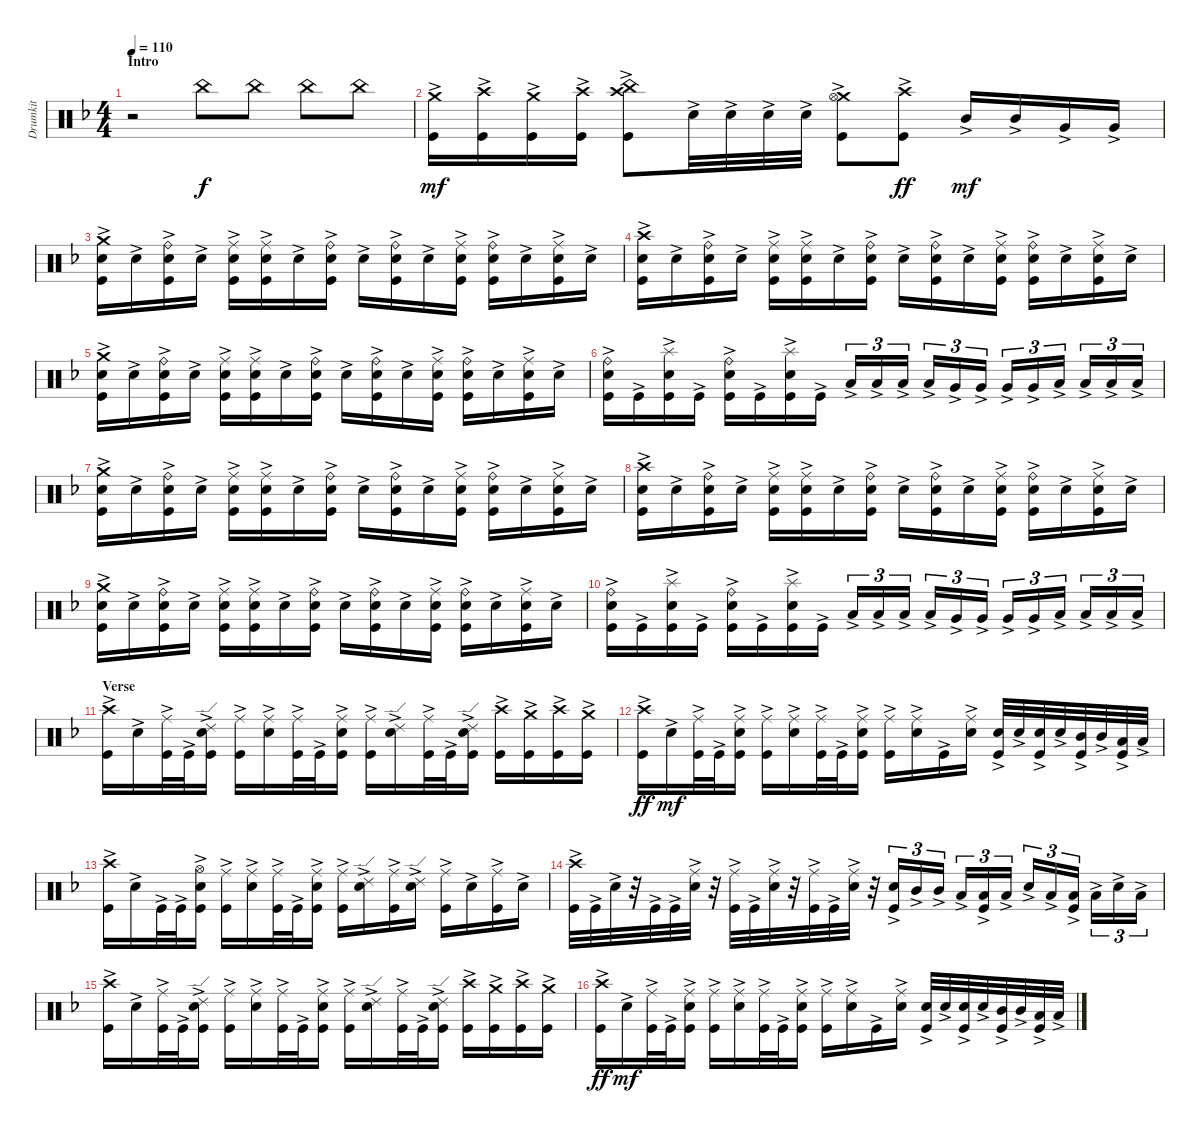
\track ("Drumkit" "Drumkit") {instrument percussion}
\staff {score}
\articulation defaults
\ts (4 4)
\section ("" "Intro")
\tempo 110
\clef neutral
\ks dminor
r.2{dy f} "China (hit)".8 "China (hit)".8 "China (hit)".8 "China (hit)".8 |
("Crash medium (hit)"{ac} "Kick (hit)"{ac}).16{dy mf} ("Crash high (hit)"{ac} "Kick (hit)"{ac}).16 ("Crash medium (hit)"{ac} "Kick (hit)"{ac}).16 ("Crash high (hit)"{ac} "Kick (hit)"{ac}).16 ("China (hit)"{ac} "Crash high (hit)"{ac} "Kick (hit)"{ac}).8 "Snare (hit) 2"{ac}.32 "Snare (hit) 2"{ac}.32 "Snare (hit) 2"{ac}.32 "Snare (hit) 2"{ac}.32 ("Crash medium (hit)"{ac} "Hi-Hat (open)"{ac} "Kick (hit)"{ac}).8 ("Crash high (hit)"{ac} "Kick (hit)"{ac}).8{dy ff} "Mid Tom (hit)"{ac}.16{dy mf} "Mid Tom (hit)"{ac}.16 "Very Low Tom (hit)"{ac}.16 "Very Low Tom (hit)"{ac}.16 |
("Crash medium (hit)"{ac} "Snare (hit) 2"{ac} "Kick (hit)"{ac}).16 "Snare (hit) 2"{ac}.16 ("Ride (bell)"{ac} "Snare (hit) 2"{ac} "Kick (hit)"{ac}).16 "Snare (hit) 2"{ac}.16 ("Ride (middle)"{ac} "Snare (hit) 2"{ac} "Kick (hit)"{ac}).16 ("Ride (middle)"{ac} "Snare (hit) 2"{ac} "Kick (hit)"{ac}).16 "Snare (hit) 2"{ac}.16 ("Ride (bell)"{ac} "Snare (hit) 2"{ac} "Kick (hit)"{ac}).16 "Snare (hit) 2"{ac}.16 ("Ride (bell)"{ac} "Snare (hit) 2"{ac} "Kick (hit)"{ac}).16 "Snare (hit) 2"{ac}.16 ("Ride (middle)"{ac} "Snare (hit) 2"{ac} "Kick (hit)"{ac}).16 ("Ride (bell)"{ac} "Snare (hit) 2"{ac} "Kick (hit)"{ac}).16 "Snare (hit) 2"{ac}.16 ("Ride (middle)"{ac} "Snare (hit) 2"{ac} "Kick (hit)"{ac}).16 "Snare (hit) 2"{ac}.16 |
("Crash high (hit)"{ac} "Snare (hit) 2"{ac} "Kick (hit)"{ac}).16 "Snare (hit) 2"{ac}.16 ("Ride (bell)"{ac} "Snare (hit) 2"{ac} "Kick (hit)"{ac}).16 "Snare (hit) 2"{ac}.16 ("Ride (middle)"{ac} "Snare (hit) 2"{ac} "Kick (hit)"{ac}).16 ("Ride (middle)"{ac} "Snare (hit) 2"{ac} "Kick (hit)"{ac}).16 "Snare (hit) 2"{ac}.16 ("Ride (bell)"{ac} "Snare (hit) 2"{ac} "Kick (hit)"{ac}).16 "Snare (hit) 2"{ac}.16 ("Ride (bell)"{ac} "Snare (hit) 2"{ac} "Kick (hit)"{ac}).16 "Snare (hit) 2"{ac}.16 ("Ride (middle)"{ac} "Snare (hit) 2"{ac} "Kick (hit)"{ac}).16 ("Ride (bell)"{ac} "Snare (hit) 2"{ac} "Kick (hit)"{ac}).16 "Snare (hit) 2"{ac}.16 ("Ride (middle)"{ac} "Snare (hit) 2"{ac} "Kick (hit)"{ac}).16 "Snare (hit) 2"{ac}.16 |
("Crash medium (hit)"{ac} "Snare (hit) 2"{ac} "Kick (hit)"{ac}).16 "Snare (hit) 2"{ac}.16 ("Ride (bell)"{ac} "Snare (hit) 2"{ac} "Kick (hit)"{ac}).16 "Snare (hit) 2"{ac}.16 ("Ride (middle)"{ac} "Snare (hit) 2"{ac} "Kick (hit)"{ac}).16 ("Ride (middle)"{ac} "Snare (hit) 2"{ac} "Kick (hit)"{ac}).16 "Snare (hit) 2"{ac}.16 ("Ride (bell)"{ac} "Snare (hit) 2"{ac} "Kick (hit)"{ac}).16 "Snare (hit) 2"{ac}.16 ("Ride (bell)"{ac} "Snare (hit) 2"{ac} "Kick (hit)"{ac}).16 "Snare (hit) 2"{ac}.16 ("Ride (middle)"{ac} "Snare (hit) 2"{ac} "Kick (hit)"{ac}).16 ("Ride (bell)"{ac} "Snare (hit) 2"{ac} "Kick (hit)"{ac}).16 "Snare (hit) 2"{ac}.16 ("Ride (middle)"{ac} "Snare (hit) 2"{ac} "Kick (hit)"{ac}).16 "Snare (hit) 2"{ac}.16 |
("Kick (hit)"{ac} "Snare (hit) 2"{ac} "Ride (bell)"{ac}).16 "Kick (hit)"{ac}.16 ("Kick (hit)"{ac} "Snare (hit) 2"{ac} "Splash (hit)"{ac}).16 "Kick (hit)"{ac}.16 ("Kick (hit)"{ac} "Snare (hit) 2"{ac} "Ride (bell)"{ac}).16 "Kick (hit)"{ac}.16 ("Kick (hit)"{ac} "Snare (hit) 2"{ac} "Splash (hit)"{ac}).16 "Kick (hit)"{ac}.16 "Low Tom (hit)"{ac}.16{tu (3 2)} "Low Tom (hit)"{ac}.16{tu (3 2)} "Low Tom (hit)"{ac}.16{tu (3 2)} "Low Tom (hit)"{ac}.16{tu (3 2)} "Very Low Tom (hit)"{ac}.16{tu (3 2)} "Very Low Tom (hit)"{ac}.16{tu (3 2)} "Very Low Tom (hit)"{ac}.16{tu (3 2)} "Very Low Tom (hit)"{ac}.16{tu (3 2)} "Low Floor Tom (hit)"{ac}.16{tu (3 2)} "Low Floor Tom (hit)"{ac}.16{tu (3 2)} "Low Floor Tom (hit)"{ac}.16{tu (3 2)} "Low Floor Tom (hit)"{ac}.16{tu (3 2)} |
("Crash medium (hit)"{ac} "Snare (hit) 2"{ac} "Kick (hit)"{ac}).16 "Snare (hit) 2"{ac}.16 ("Ride (bell)"{ac} "Snare (hit) 2"{ac} "Kick (hit)"{ac}).16 "Snare (hit) 2"{ac}.16 ("Ride (middle)"{ac} "Snare (hit) 2"{ac} "Kick (hit)"{ac}).16 ("Ride (middle)"{ac} "Snare (hit) 2"{ac} "Kick (hit)"{ac}).16 "Snare (hit) 2"{ac}.16 ("Ride (bell)"{ac} "Snare (hit) 2"{ac} "Kick (hit)"{ac}).16 "Snare (hit) 2"{ac}.16 ("Ride (bell)"{ac} "Snare (hit) 2"{ac} "Kick (hit)"{ac}).16 "Snare (hit) 2"{ac}.16 ("Ride (middle)"{ac} "Snare (hit) 2"{ac} "Kick (hit)"{ac}).16 ("Ride (bell)"{ac} "Snare (hit) 2"{ac} "Kick (hit)"{ac}).16 "Snare (hit) 2"{ac}.16 ("Ride (middle)"{ac} "Snare (hit) 2"{ac} "Kick (hit)"{ac}).16 "Snare (hit) 2"{ac}.16 |
("Crash high (hit)"{ac} "Snare (hit) 2"{ac} "Kick (hit)"{ac}).16 "Snare (hit) 2"{ac}.16 ("Ride (bell)"{ac} "Snare (hit) 2"{ac} "Kick (hit)"{ac}).16 "Snare (hit) 2"{ac}.16 ("Ride (middle)"{ac} "Snare (hit) 2"{ac} "Kick (hit)"{ac}).16 ("Ride (middle)"{ac} "Snare (hit) 2"{ac} "Kick (hit)"{ac}).16 "Snare (hit) 2"{ac}.16 ("Ride (bell)"{ac} "Snare (hit) 2"{ac} "Kick (hit)"{ac}).16 "Snare (hit) 2"{ac}.16 ("Ride (bell)"{ac} "Snare (hit) 2"{ac} "Kick (hit)"{ac}).16 "Snare (hit) 2"{ac}.16 ("Ride (middle)"{ac} "Snare (hit) 2"{ac} "Kick (hit)"{ac}).16 ("Ride (bell)"{ac} "Snare (hit) 2"{ac} "Kick (hit)"{ac}).16 "Snare (hit) 2"{ac}.16 ("Ride (middle)"{ac} "Snare (hit) 2"{ac} "Kick (hit)"{ac}).16 "Snare (hit) 2"{ac}.16 |
("Crash medium (hit)"{ac} "Snare (hit) 2"{ac} "Kick (hit)"{ac}).16 "Snare (hit) 2"{ac}.16 ("Ride (bell)"{ac} "Snare (hit) 2"{ac} "Kick (hit)"{ac}).16 "Snare (hit) 2"{ac}.16 ("Ride (middle)"{ac} "Snare (hit) 2"{ac} "Kick (hit)"{ac}).16 ("Ride (middle)"{ac} "Snare (hit) 2"{ac} "Kick (hit)"{ac}).16 "Snare (hit) 2"{ac}.16 ("Ride (bell)"{ac} "Snare (hit) 2"{ac} "Kick (hit)"{ac}).16 "Snare (hit) 2"{ac}.16 ("Ride (bell)"{ac} "Snare (hit) 2"{ac} "Kick (hit)"{ac}).16 "Snare (hit) 2"{ac}.16 ("Ride (middle)"{ac} "Snare (hit) 2"{ac} "Kick (hit)"{ac}).16 ("Ride (bell)"{ac} "Snare (hit) 2"{ac} "Kick (hit)"{ac}).16 "Snare (hit) 2"{ac}.16 ("Ride (middle)"{ac} "Snare (hit) 2"{ac} "Kick (hit)"{ac}).16 "Snare (hit) 2"{ac}.16 |
("Kick (hit)"{ac} "Snare (hit) 2"{ac} "Ride (bell)"{ac}).16 "Kick (hit)"{ac}.16 ("Kick (hit)"{ac} "Snare (hit) 2"{ac} "Splash (hit)"{ac}).16 "Kick (hit)"{ac}.16 ("Kick (hit)"{ac} "Snare (hit) 2"{ac} "Ride (bell)"{ac}).16 "Kick (hit)"{ac}.16 ("Kick (hit)"{ac} "Snare (hit) 2"{ac} "Splash (hit)"{ac}).16 "Kick (hit)"{ac}.16 "Low Tom (hit)"{ac}.16{tu (3 2)} "Low Tom (hit)"{ac}.16{tu (3 2)} "Low Tom (hit)"{ac}.16{tu (3 2)} "Low Tom (hit)"{ac}.16{tu (3 2)} "Very Low Tom (hit)"{ac}.16{tu (3 2)} "Very Low Tom (hit)"{ac}.16{tu (3 2)} "Very Low Tom (hit)"{ac}.16{tu (3 2)} "Very Low Tom (hit)"{ac}.16{tu (3 2)} "Low Floor Tom (hit)"{ac}.16{tu (3 2)} "Low Floor Tom (hit)"{ac}.16{tu (3 2)} "Low Floor Tom (hit)"{ac}.16{tu (3 2)} "Low Floor Tom (hit)"{ac}.16{tu (3 2)} |
\section ("" "Verse")
("Crash high (hit)"{ac} "Kick (hit)"{ac}).16 "Snare (hit) 2"{ac}.16 ("Ride (middle)"{ac} "Kick (hit)"{ac}).32 "Kick (hit)"{ac}.32 ("Ride (edge) 2"{ac} "Snare (hit) 2"{ac} "Kick (hit)"{ac}).16 ("Ride (middle)"{ac} "Kick (hit)"{ac}).16 ("Ride (middle)"{ac} "Snare (hit) 2"{ac}).16 ("Ride (middle)"{ac} "Kick (hit)"{ac}).32 "Kick (hit)"{ac}.32 ("Ride (middle)"{ac} "Snare (hit) 2"{ac} "Kick (hit)"{ac}).16 ("Ride (middle)"{ac} "Kick (hit)"{ac}).16 ("Ride (edge) 2"{ac} "Snare (hit) 2"{ac}).16 ("Ride (middle)"{ac} "Kick (hit)"{ac}).32 "Kick (hit)"{ac}.32 ("Ride (edge) 2"{ac} "Snare (hit) 2"{ac} "Kick (hit)"{ac}).16 ("Crash high (hit)"{ac} "Kick (hit)"{ac}).16 ("Crash medium (hit)"{ac} "Kick (hit)"{ac}).16 ("Crash high (hit)"{ac} "Kick (hit)"{ac}).16 ("Crash medium (hit)"{ac} "Kick (hit)"{ac}).16 |
("Crash high (hit)"{ac} "Kick (hit)"{ac}).16{dy ff} "Snare (hit) 2"{ac}.16{dy mf} ("Ride (middle)"{ac} "Kick (hit)"{ac}).32 "Kick (hit)"{ac}.32 ("Ride (middle)"{ac} "Snare (hit) 2"{ac} "Kick (hit)"{ac}).16 ("Ride (middle)"{ac} "Kick (hit)"{ac}).16 ("Ride (middle)"{ac} "Snare (hit) 2"{ac}).16 ("Ride (middle)"{ac} "Kick (hit)"{ac}).32 "Kick (hit)"{ac}.32 ("Ride (middle)"{ac} "Snare (hit) 2"{ac} "Kick (hit)"{ac}).16 ("Ride (middle)"{ac} "Kick (hit)"{ac}).16 ("Ride (middle)"{ac} "Snare (hit) 2"{ac}).16 "Kick (hit)"{ac}.16 ("Ride (middle)"{ac} "Snare (hit) 2"{ac}).16 ("Snare (hit) 2"{ac} "Kick (hit)"{ac}).32 "Snare (hit) 2"{ac}.32 ("Snare (hit) 2"{ac} "Kick (hit)"{ac}).32 "Snare (hit) 2"{ac}.32 ("Mid Tom (hit)"{ac} "Kick (hit)"{ac}).32 "Mid Tom (hit)"{ac}.32 ("Low Tom (hit)"{ac} "Kick (hit)"{ac}).32 "Low Tom (hit)"{ac}.32 |
("Crash high (hit)"{ac} "Kick (hit)"{ac}).16 "Snare (hit) 2"{ac}.16 "Kick (hit)"{ac}.32 "Kick (hit)"{ac}.32 ("Hi-Hat (open)"{ac} "Snare (hit) 2"{ac} "Kick (hit)"{ac}).16 ("Ride (middle)"{ac} "Kick (hit)"{ac}).16 ("Ride (middle)"{ac} "Snare (hit) 2"{ac}).16 ("Ride (middle)"{ac} "Kick (hit)"{ac}).32 "Kick (hit)"{ac}.32 ("Ride (middle)"{ac} "Snare (hit) 2"{ac} "Kick (hit)"{ac}).16 ("Ride (middle)"{ac} "Kick (hit)"{ac}).16 ("Ride (edge) 2"{ac} "Snare (hit) 2"{ac}).16 ("Ride (middle)"{ac} "Kick (hit)"{ac}).16 ("Ride (edge) 2"{ac} "Snare (hit) 2"{ac}).16 ("Ride (middle)"{ac} "Kick (hit)"{ac}).16 "Snare (hit) 2"{ac}.16 ("Ride (middle)"{ac} "Kick (hit)"{ac}).16 "Snare (hit) 2"{ac}.16 |
("Crash high (hit)"{ac} "Kick (hit)"{ac}).32 "Kick (hit)"{ac}.32 "Snare (hit) 2"{ac}.32 r.32 "Kick (hit)"{ac}.32 "Kick (hit)"{ac}.32 ("Ride (middle)"{ac} "Snare (hit) 2"{ac}).32 r.32 ("Ride (middle)"{ac} "Kick (hit)"{ac}).32 "Kick (hit)"{ac}.32 ("Ride (middle)"{ac} "Snare (hit) 2"{ac}).32 r.32 ("Ride (middle)"{ac} "Kick (hit)"{ac}).32 "Kick (hit)"{ac}.32 ("Ride (middle)"{ac} "Snare (hit) 2"{ac}).32 r.32 ("Snare (hit) 2"{ac} "Kick (hit)"{ac}).16{tu (3 2)} "Mid Tom (hit)"{ac}.16{tu (3 2)} "Mid Tom (hit)"{ac}.16{tu (3 2)} "Low Tom (hit)"{ac}.16{tu (3 2)} ("Low Tom (hit)"{ac} "Kick (hit)"{ac}).16{tu (3 2)} "Low Tom (hit)"{ac}.16{tu (3 2)} "Snare (hit) 2"{ac}.16{tu (3 2)} "Low Tom (hit)"{ac}.16{tu (3 2)} ("Low Tom (hit)"{ac} "Kick (hit)"{ac}).16{tu (3 2)} "Low Tom (hit)"{ac}.16{tu (3 2)} "Snare (hit) 2"{ac}.16{tu (3 2)} "Low Tom (hit)"{ac}.16{tu (3 2)} |
("Crash high (hit)"{ac} "Kick (hit)"{ac}).16 "Snare (hit) 2"{ac}.16 ("Ride (middle)"{ac} "Kick (hit)"{ac}).32 "Kick (hit)"{ac}.32 ("Ride (edge) 2"{ac} "Snare (hit) 2"{ac} "Kick (hit)"{ac}).16 ("Ride (middle)"{ac} "Kick (hit)"{ac}).16 ("Ride (middle)"{ac} "Snare (hit) 2"{ac}).16 ("Ride (middle)"{ac} "Kick (hit)"{ac}).32 "Kick (hit)"{ac}.32 ("Ride (middle)"{ac} "Snare (hit) 2"{ac} "Kick (hit)"{ac}).16 ("Ride (middle)"{ac} "Kick (hit)"{ac}).16 ("Ride (edge) 2"{ac} "Snare (hit) 2"{ac}).16 ("Ride (middle)"{ac} "Kick (hit)"{ac}).32 "Kick (hit)"{ac}.32 ("Ride (edge) 2"{ac} "Snare (hit) 2"{ac} "Kick (hit)"{ac}).16 ("Crash high (hit)"{ac} "Kick (hit)"{ac}).16 ("Crash medium (hit)"{ac} "Kick (hit)"{ac}).16 ("Crash high (hit)"{ac} "Kick (hit)"{ac}).16 ("Crash medium (hit)"{ac} "Kick (hit)"{ac}).16 |
("Crash high (hit)"{ac} "Kick (hit)"{ac}).16{dy ff} "Snare (hit) 2"{ac}.16{dy mf} ("Ride (middle)"{ac} "Kick (hit)"{ac}).32 "Kick (hit)"{ac}.32 ("Ride (middle)"{ac} "Snare (hit) 2"{ac} "Kick (hit)"{ac}).16 ("Ride (middle)"{ac} "Kick (hit)"{ac}).16 ("Ride (middle)"{ac} "Snare (hit) 2"{ac}).16 ("Ride (middle)"{ac} "Kick (hit)"{ac}).32 "Kick (hit)"{ac}.32 ("Ride (middle)"{ac} "Snare (hit) 2"{ac} "Kick (hit)"{ac}).16 ("Ride (middle)"{ac} "Kick (hit)"{ac}).16 ("Ride (middle)"{ac} "Snare (hit) 2"{ac}).16 "Kick (hit)"{ac}.16 ("Ride (middle)"{ac} "Snare (hit) 2"{ac}).16 ("Snare (hit) 2"{ac} "Kick (hit)"{ac}).32 "Snare (hit) 2"{ac}.32 ("Snare (hit) 2"{ac} "Kick (hit)"{ac}).32 "Snare (hit) 2"{ac}.32 ("Mid Tom (hit)"{ac} "Kick (hit)"{ac}).32 "Mid Tom (hit)"{ac}.32 ("Low Tom (hit)"{ac} "Kick (hit)"{ac}).32 "Low Tom (hit)"{ac}.32
